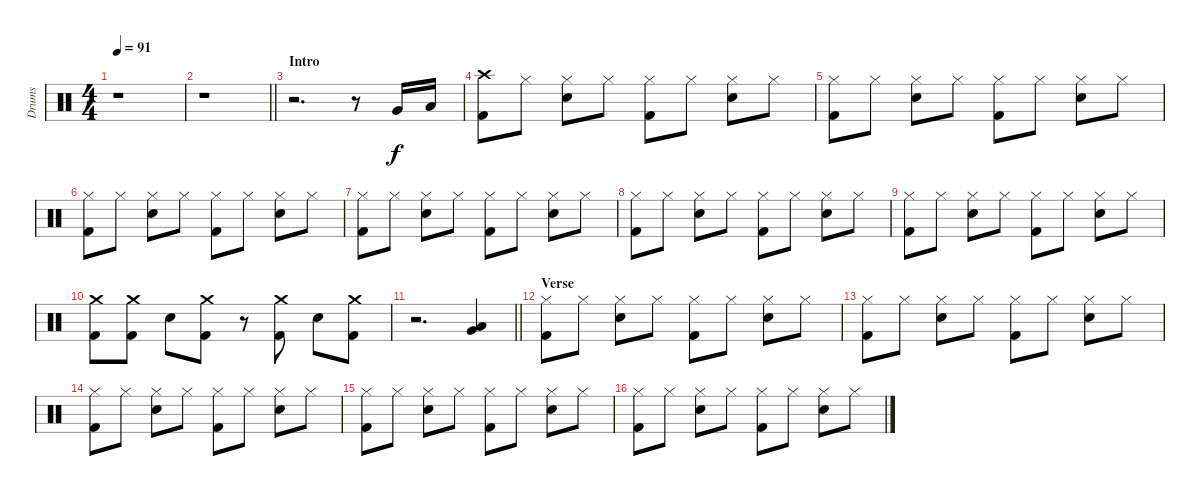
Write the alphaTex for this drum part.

\track ("Drums" "Drums") {instrument percussion}
\staff {score}
\articulation defaults
\ts (4 4)
\tempo 91
\clef neutral
\ks c
r.1{dy f} |
\barLineRight lightlight
r.1 |
\section ("" "Intro")
r.2{d} r.8 "Very Low Tom (hit)".16 "Low Floor Tom (hit)".16 |
("Crash high (hit)" "Kick (hit) 2").8 "Hi-Hat (closed)".8 ("Hi-Hat (closed)" "Electric Snare (hit)").8 "Hi-Hat (closed)".8 ("Hi-Hat (closed)" "Kick (hit) 2").8 "Hi-Hat (closed)".8 ("Hi-Hat (closed)" "Electric Snare (hit)").8 "Hi-Hat (closed)".8 |
("Hi-Hat (closed)" "Kick (hit) 2").8 "Hi-Hat (closed)".8 ("Hi-Hat (closed)" "Electric Snare (hit)").8 "Hi-Hat (closed)".8 ("Hi-Hat (closed)" "Kick (hit) 2").8 "Hi-Hat (closed)".8 ("Hi-Hat (closed)" "Electric Snare (hit)").8 "Hi-Hat (closed)".8 |
("Hi-Hat (closed)" "Kick (hit) 2").8 "Hi-Hat (closed)".8 ("Hi-Hat (closed)" "Electric Snare (hit)").8 "Hi-Hat (closed)".8 ("Hi-Hat (closed)" "Kick (hit) 2").8 "Hi-Hat (closed)".8 ("Hi-Hat (closed)" "Electric Snare (hit)").8 "Hi-Hat (closed)".8 |
("Hi-Hat (closed)" "Kick (hit) 2").8 "Hi-Hat (closed)".8 ("Hi-Hat (closed)" "Electric Snare (hit)").8 "Hi-Hat (closed)".8 ("Hi-Hat (closed)" "Kick (hit) 2").8 "Hi-Hat (closed)".8 ("Hi-Hat (closed)" "Electric Snare (hit)").8 "Hi-Hat (closed)".8 |
("Hi-Hat (closed)" "Kick (hit) 2").8 "Hi-Hat (closed)".8 ("Hi-Hat (closed)" "Electric Snare (hit)").8 "Hi-Hat (closed)".8 ("Hi-Hat (closed)" "Kick (hit) 2").8 "Hi-Hat (closed)".8 ("Hi-Hat (closed)" "Electric Snare (hit)").8 "Hi-Hat (closed)".8 |
("Hi-Hat (closed)" "Kick (hit) 2").8 "Hi-Hat (closed)".8 ("Hi-Hat (closed)" "Electric Snare (hit)").8 "Hi-Hat (closed)".8 ("Hi-Hat (closed)" "Kick (hit) 2").8 "Hi-Hat (closed)".8 ("Hi-Hat (closed)" "Electric Snare (hit)").8 "Hi-Hat (closed)".8 |
("Crash medium (hit)" "Kick (hit) 2").8 ("Crash medium (hit)" "Kick (hit) 2").8 "Electric Snare (hit)".8 ("Crash medium (hit)" "Kick (hit) 2").8 r.8 ("Crash medium (hit)" "Kick (hit) 2").8 "Electric Snare (hit)".8 ("Crash medium (hit)" "Kick (hit) 2").8 |
\barLineRight lightlight
r.2{d} ("Very Low Tom (hit)" "Low Floor Tom (hit)").4 |
\section ("" "Verse")
("Hi-Hat (closed)" "Kick (hit) 2").8 "Hi-Hat (closed)".8 ("Hi-Hat (closed)" "Electric Snare (hit)").8 "Hi-Hat (closed)".8 ("Hi-Hat (closed)" "Kick (hit) 2").8 "Hi-Hat (closed)".8 ("Hi-Hat (closed)" "Electric Snare (hit)").8 "Hi-Hat (closed)".8 |
("Hi-Hat (closed)" "Kick (hit) 2").8 "Hi-Hat (closed)".8 ("Hi-Hat (closed)" "Electric Snare (hit)").8 "Hi-Hat (closed)".8 ("Hi-Hat (closed)" "Kick (hit) 2").8 "Hi-Hat (closed)".8 ("Hi-Hat (closed)" "Electric Snare (hit)").8 "Hi-Hat (closed)".8 |
("Hi-Hat (closed)" "Kick (hit) 2").8 "Hi-Hat (closed)".8 ("Hi-Hat (closed)" "Electric Snare (hit)").8 "Hi-Hat (closed)".8 ("Hi-Hat (closed)" "Kick (hit) 2").8 "Hi-Hat (closed)".8 ("Hi-Hat (closed)" "Electric Snare (hit)").8 "Hi-Hat (closed)".8 |
("Hi-Hat (closed)" "Kick (hit) 2").8 "Hi-Hat (closed)".8 ("Hi-Hat (closed)" "Electric Snare (hit)").8 "Hi-Hat (closed)".8 ("Hi-Hat (closed)" "Kick (hit) 2").8 "Hi-Hat (closed)".8 ("Hi-Hat (closed)" "Electric Snare (hit)").8 "Hi-Hat (closed)".8 |
("Hi-Hat (closed)" "Kick (hit) 2").8 "Hi-Hat (closed)".8 ("Hi-Hat (closed)" "Electric Snare (hit)").8 "Hi-Hat (closed)".8 ("Hi-Hat (closed)" "Kick (hit) 2").8 "Hi-Hat (closed)".8 ("Hi-Hat (closed)" "Electric Snare (hit)").8 "Hi-Hat (closed)".8
